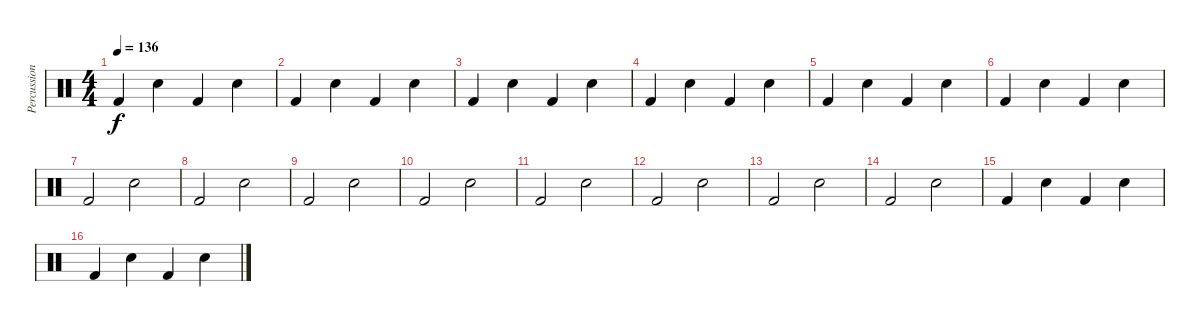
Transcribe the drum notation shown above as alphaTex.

\track ("Percussion" "Percussion") {instrument percussion}
\staff {score}
\articulation defaults
\ts (4 4)
\tempo 136
\clef neutral
\ks c "Kick (hit) 2".4{dy f} "Snare (hit) 2".4 "Kick (hit) 2".4 "Snare (hit) 2".4
|
"Kick (hit) 2".4 "Snare (hit) 2".4 "Kick (hit) 2".4 "Snare (hit) 2".4 |
"Kick (hit) 2".4 "Snare (hit) 2".4 "Kick (hit) 2".4 "Snare (hit) 2".4 |
"Kick (hit) 2".4 "Snare (hit) 2".4 "Kick (hit) 2".4 "Snare (hit) 2".4 |
"Kick (hit) 2".4 "Snare (hit) 2".4 "Kick (hit) 2".4 "Snare (hit) 2".4 |
"Kick (hit) 2".4 "Snare (hit) 2".4 "Kick (hit) 2".4 "Snare (hit) 2".4 |
"Kick (hit) 2".2 "Snare (hit) 2".2 |
"Kick (hit) 2".2 "Snare (hit) 2".2 |
"Kick (hit) 2".2 "Snare (hit) 2".2 |
"Kick (hit) 2".2 "Snare (hit) 2".2 |
"Kick (hit) 2".2 "Snare (hit) 2".2 |
"Kick (hit) 2".2 "Snare (hit) 2".2 |
"Kick (hit) 2".2 "Snare (hit) 2".2 |
"Kick (hit) 2".2 "Snare (hit) 2".2 |
"Kick (hit) 2".4 "Snare (hit) 2".4 "Kick (hit) 2".4 "Snare (hit) 2".4 |
"Kick (hit) 2".4 "Snare (hit) 2".4 "Kick (hit) 2".4 "Snare (hit) 2".4
